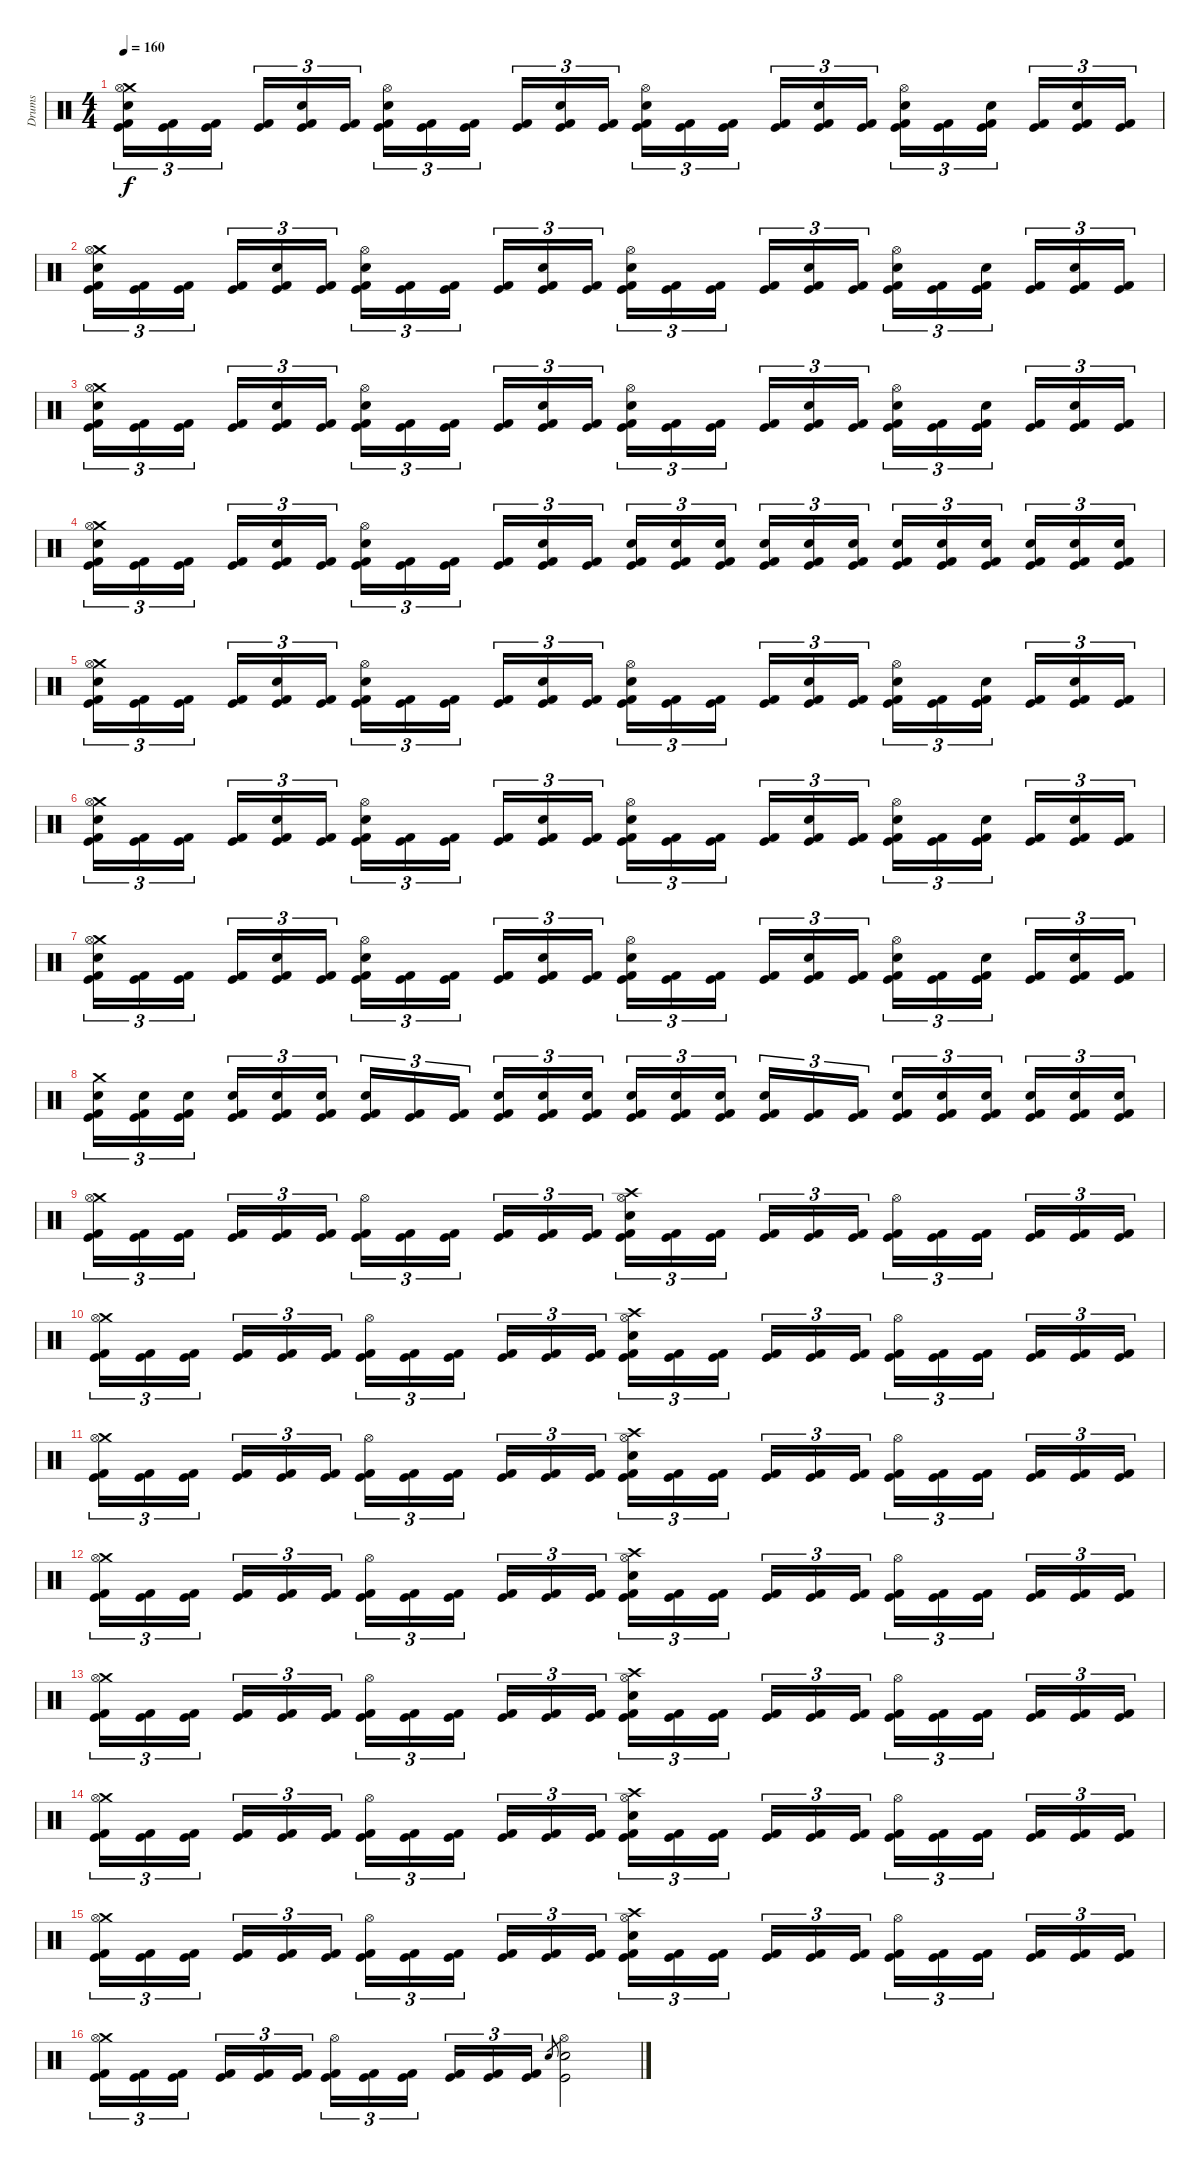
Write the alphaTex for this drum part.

\track ("Drums" "Drums") {instrument percussion}
\staff {score}
\articulation defaults
\ts (4 4)
\tempo 160
\clef neutral
\ks c
("Crash medium (hit)" "Hi-Hat (open)" "Electric Snare (hit)" "Kick (hit)" "Kick (hit) 2").16{tu (3 2) dy f} ("Kick (hit)" "Kick (hit) 2").16{tu (3 2)} ("Kick (hit)" "Kick (hit) 2").16{tu (3 2)} ("Kick (hit)" "Kick (hit) 2").16{tu (3 2)} ("Electric Snare (hit)" "Kick (hit)" "Kick (hit) 2").16{tu (3 2)} ("Kick (hit)" "Kick (hit) 2").16{tu (3 2)} ("Hi-Hat (open)" "Electric Snare (hit)" "Kick (hit)" "Kick (hit) 2").16{tu (3 2)} ("Kick (hit)" "Kick (hit) 2").16{tu (3 2)} ("Kick (hit)" "Kick (hit) 2").16{tu (3 2)} ("Kick (hit)" "Kick (hit) 2").16{tu (3 2)} ("Electric Snare (hit)" "Kick (hit)" "Kick (hit) 2").16{tu (3 2)} ("Kick (hit)" "Kick (hit) 2").16{tu (3 2)} ("Hi-Hat (open)" "Electric Snare (hit)" "Kick (hit)" "Kick (hit) 2").16{tu (3 2)} ("Kick (hit)" "Kick (hit) 2").16{tu (3 2)} ("Kick (hit)" "Kick (hit) 2").16{tu (3 2)} ("Kick (hit)" "Kick (hit) 2").16{tu (3 2)} ("Electric Snare (hit)" "Kick (hit)" "Kick (hit) 2").16{tu (3 2)} ("Kick (hit)" "Kick (hit) 2").16{tu (3 2)} ("Hi-Hat (open)" "Electric Snare (hit)" "Kick (hit)" "Kick (hit) 2").16{tu (3 2)} ("Kick (hit)" "Kick (hit) 2").16{tu (3 2)} ("Electric Snare (hit)" "Kick (hit)" "Kick (hit) 2").16{tu (3 2)} ("Kick (hit)" "Kick (hit) 2").16{tu (3 2)} ("Electric Snare (hit)" "Kick (hit)" "Kick (hit) 2").16{tu (3 2)} ("Kick (hit)" "Kick (hit) 2").16{tu (3 2)} |
("Crash medium (hit)" "Hi-Hat (open)" "Electric Snare (hit)" "Kick (hit)" "Kick (hit) 2").16{tu (3 2)} ("Kick (hit)" "Kick (hit) 2").16{tu (3 2)} ("Kick (hit)" "Kick (hit) 2").16{tu (3 2)} ("Kick (hit)" "Kick (hit) 2").16{tu (3 2)} ("Electric Snare (hit)" "Kick (hit)" "Kick (hit) 2").16{tu (3 2)} ("Kick (hit)" "Kick (hit) 2").16{tu (3 2)} ("Hi-Hat (open)" "Electric Snare (hit)" "Kick (hit)" "Kick (hit) 2").16{tu (3 2)} ("Kick (hit)" "Kick (hit) 2").16{tu (3 2)} ("Kick (hit)" "Kick (hit) 2").16{tu (3 2)} ("Kick (hit)" "Kick (hit) 2").16{tu (3 2)} ("Electric Snare (hit)" "Kick (hit)" "Kick (hit) 2").16{tu (3 2)} ("Kick (hit)" "Kick (hit) 2").16{tu (3 2)} ("Hi-Hat (open)" "Electric Snare (hit)" "Kick (hit)" "Kick (hit) 2").16{tu (3 2)} ("Kick (hit)" "Kick (hit) 2").16{tu (3 2)} ("Kick (hit)" "Kick (hit) 2").16{tu (3 2)} ("Kick (hit)" "Kick (hit) 2").16{tu (3 2)} ("Electric Snare (hit)" "Kick (hit)" "Kick (hit) 2").16{tu (3 2)} ("Kick (hit)" "Kick (hit) 2").16{tu (3 2)} ("Hi-Hat (open)" "Electric Snare (hit)" "Kick (hit)" "Kick (hit) 2").16{tu (3 2)} ("Kick (hit)" "Kick (hit) 2").16{tu (3 2)} ("Electric Snare (hit)" "Kick (hit)" "Kick (hit) 2").16{tu (3 2)} ("Kick (hit)" "Kick (hit) 2").16{tu (3 2)} ("Electric Snare (hit)" "Kick (hit)" "Kick (hit) 2").16{tu (3 2)} ("Kick (hit)" "Kick (hit) 2").16{tu (3 2)} |
("Crash medium (hit)" "Hi-Hat (open)" "Electric Snare (hit)" "Kick (hit)" "Kick (hit) 2").16{tu (3 2)} ("Kick (hit)" "Kick (hit) 2").16{tu (3 2)} ("Kick (hit)" "Kick (hit) 2").16{tu (3 2)} ("Kick (hit)" "Kick (hit) 2").16{tu (3 2)} ("Electric Snare (hit)" "Kick (hit)" "Kick (hit) 2").16{tu (3 2)} ("Kick (hit)" "Kick (hit) 2").16{tu (3 2)} ("Hi-Hat (open)" "Electric Snare (hit)" "Kick (hit)" "Kick (hit) 2").16{tu (3 2)} ("Kick (hit)" "Kick (hit) 2").16{tu (3 2)} ("Kick (hit)" "Kick (hit) 2").16{tu (3 2)} ("Kick (hit)" "Kick (hit) 2").16{tu (3 2)} ("Electric Snare (hit)" "Kick (hit)" "Kick (hit) 2").16{tu (3 2)} ("Kick (hit)" "Kick (hit) 2").16{tu (3 2)} ("Hi-Hat (open)" "Electric Snare (hit)" "Kick (hit)" "Kick (hit) 2").16{tu (3 2)} ("Kick (hit)" "Kick (hit) 2").16{tu (3 2)} ("Kick (hit)" "Kick (hit) 2").16{tu (3 2)} ("Kick (hit)" "Kick (hit) 2").16{tu (3 2)} ("Electric Snare (hit)" "Kick (hit)" "Kick (hit) 2").16{tu (3 2)} ("Kick (hit)" "Kick (hit) 2").16{tu (3 2)} ("Hi-Hat (open)" "Electric Snare (hit)" "Kick (hit)" "Kick (hit) 2").16{tu (3 2)} ("Kick (hit)" "Kick (hit) 2").16{tu (3 2)} ("Electric Snare (hit)" "Kick (hit)" "Kick (hit) 2").16{tu (3 2)} ("Kick (hit)" "Kick (hit) 2").16{tu (3 2)} ("Electric Snare (hit)" "Kick (hit)" "Kick (hit) 2").16{tu (3 2)} ("Kick (hit)" "Kick (hit) 2").16{tu (3 2)} |
("Crash medium (hit)" "Hi-Hat (open)" "Electric Snare (hit)" "Kick (hit)" "Kick (hit) 2").16{tu (3 2)} ("Kick (hit)" "Kick (hit) 2").16{tu (3 2)} ("Kick (hit)" "Kick (hit) 2").16{tu (3 2)} ("Kick (hit)" "Kick (hit) 2").16{tu (3 2)} ("Electric Snare (hit)" "Kick (hit)" "Kick (hit) 2").16{tu (3 2)} ("Kick (hit)" "Kick (hit) 2").16{tu (3 2)} ("Hi-Hat (open)" "Electric Snare (hit)" "Kick (hit)" "Kick (hit) 2").16{tu (3 2)} ("Kick (hit)" "Kick (hit) 2").16{tu (3 2)} ("Kick (hit)" "Kick (hit) 2").16{tu (3 2)} ("Kick (hit)" "Kick (hit) 2").16{tu (3 2)} ("Electric Snare (hit)" "Kick (hit)" "Kick (hit) 2").16{tu (3 2)} ("Kick (hit)" "Kick (hit) 2").16{tu (3 2)} ("Electric Snare (hit)" "Kick (hit)" "Kick (hit) 2").16{tu (3 2)} ("Electric Snare (hit)" "Kick (hit)" "Kick (hit) 2").16{tu (3 2)} ("Electric Snare (hit)" "Kick (hit)" "Kick (hit) 2").16{tu (3 2)} ("Electric Snare (hit)" "Kick (hit)" "Kick (hit) 2").16{tu (3 2)} ("Electric Snare (hit)" "Kick (hit)" "Kick (hit) 2").16{tu (3 2)} ("Electric Snare (hit)" "Kick (hit)" "Kick (hit) 2").16{tu (3 2)} ("Electric Snare (hit)" "Kick (hit)" "Kick (hit) 2").16{tu (3 2)} ("Electric Snare (hit)" "Kick (hit)" "Kick (hit) 2").16{tu (3 2)} ("Electric Snare (hit)" "Kick (hit)" "Kick (hit) 2").16{tu (3 2)} ("Electric Snare (hit)" "Kick (hit)" "Kick (hit) 2").16{tu (3 2)} ("Electric Snare (hit)" "Kick (hit)" "Kick (hit) 2").16{tu (3 2)} ("Electric Snare (hit)" "Kick (hit)" "Kick (hit) 2").16{tu (3 2)} |
("Crash medium (hit)" "Hi-Hat (open)" "Electric Snare (hit)" "Kick (hit)" "Kick (hit) 2").16{tu (3 2)} ("Kick (hit)" "Kick (hit) 2").16{tu (3 2)} ("Kick (hit)" "Kick (hit) 2").16{tu (3 2)} ("Kick (hit)" "Kick (hit) 2").16{tu (3 2)} ("Electric Snare (hit)" "Kick (hit)" "Kick (hit) 2").16{tu (3 2)} ("Kick (hit)" "Kick (hit) 2").16{tu (3 2)} ("Hi-Hat (open)" "Electric Snare (hit)" "Kick (hit)" "Kick (hit) 2").16{tu (3 2)} ("Kick (hit)" "Kick (hit) 2").16{tu (3 2)} ("Kick (hit)" "Kick (hit) 2").16{tu (3 2)} ("Kick (hit)" "Kick (hit) 2").16{tu (3 2)} ("Electric Snare (hit)" "Kick (hit)" "Kick (hit) 2").16{tu (3 2)} ("Kick (hit)" "Kick (hit) 2").16{tu (3 2)} ("Hi-Hat (open)" "Electric Snare (hit)" "Kick (hit)" "Kick (hit) 2").16{tu (3 2)} ("Kick (hit)" "Kick (hit) 2").16{tu (3 2)} ("Kick (hit)" "Kick (hit) 2").16{tu (3 2)} ("Kick (hit)" "Kick (hit) 2").16{tu (3 2)} ("Electric Snare (hit)" "Kick (hit)" "Kick (hit) 2").16{tu (3 2)} ("Kick (hit)" "Kick (hit) 2").16{tu (3 2)} ("Hi-Hat (open)" "Electric Snare (hit)" "Kick (hit)" "Kick (hit) 2").16{tu (3 2)} ("Kick (hit)" "Kick (hit) 2").16{tu (3 2)} ("Electric Snare (hit)" "Kick (hit)" "Kick (hit) 2").16{tu (3 2)} ("Kick (hit)" "Kick (hit) 2").16{tu (3 2)} ("Electric Snare (hit)" "Kick (hit)" "Kick (hit) 2").16{tu (3 2)} ("Kick (hit)" "Kick (hit) 2").16{tu (3 2)} |
("Crash medium (hit)" "Hi-Hat (open)" "Electric Snare (hit)" "Kick (hit)" "Kick (hit) 2").16{tu (3 2)} ("Kick (hit)" "Kick (hit) 2").16{tu (3 2)} ("Kick (hit)" "Kick (hit) 2").16{tu (3 2)} ("Kick (hit)" "Kick (hit) 2").16{tu (3 2)} ("Electric Snare (hit)" "Kick (hit)" "Kick (hit) 2").16{tu (3 2)} ("Kick (hit)" "Kick (hit) 2").16{tu (3 2)} ("Hi-Hat (open)" "Electric Snare (hit)" "Kick (hit)" "Kick (hit) 2").16{tu (3 2)} ("Kick (hit)" "Kick (hit) 2").16{tu (3 2)} ("Kick (hit)" "Kick (hit) 2").16{tu (3 2)} ("Kick (hit)" "Kick (hit) 2").16{tu (3 2)} ("Electric Snare (hit)" "Kick (hit)" "Kick (hit) 2").16{tu (3 2)} ("Kick (hit)" "Kick (hit) 2").16{tu (3 2)} ("Hi-Hat (open)" "Electric Snare (hit)" "Kick (hit)" "Kick (hit) 2").16{tu (3 2)} ("Kick (hit)" "Kick (hit) 2").16{tu (3 2)} ("Kick (hit)" "Kick (hit) 2").16{tu (3 2)} ("Kick (hit)" "Kick (hit) 2").16{tu (3 2)} ("Electric Snare (hit)" "Kick (hit)" "Kick (hit) 2").16{tu (3 2)} ("Kick (hit)" "Kick (hit) 2").16{tu (3 2)} ("Hi-Hat (open)" "Electric Snare (hit)" "Kick (hit)" "Kick (hit) 2").16{tu (3 2)} ("Kick (hit)" "Kick (hit) 2").16{tu (3 2)} ("Electric Snare (hit)" "Kick (hit)" "Kick (hit) 2").16{tu (3 2)} ("Kick (hit)" "Kick (hit) 2").16{tu (3 2)} ("Electric Snare (hit)" "Kick (hit)" "Kick (hit) 2").16{tu (3 2)} ("Kick (hit)" "Kick (hit) 2").16{tu (3 2)} |
("Crash medium (hit)" "Hi-Hat (open)" "Electric Snare (hit)" "Kick (hit)" "Kick (hit) 2").16{tu (3 2)} ("Kick (hit)" "Kick (hit) 2").16{tu (3 2)} ("Kick (hit)" "Kick (hit) 2").16{tu (3 2)} ("Kick (hit)" "Kick (hit) 2").16{tu (3 2)} ("Electric Snare (hit)" "Kick (hit)" "Kick (hit) 2").16{tu (3 2)} ("Kick (hit)" "Kick (hit) 2").16{tu (3 2)} ("Hi-Hat (open)" "Electric Snare (hit)" "Kick (hit)" "Kick (hit) 2").16{tu (3 2)} ("Kick (hit)" "Kick (hit) 2").16{tu (3 2)} ("Kick (hit)" "Kick (hit) 2").16{tu (3 2)} ("Kick (hit)" "Kick (hit) 2").16{tu (3 2)} ("Electric Snare (hit)" "Kick (hit)" "Kick (hit) 2").16{tu (3 2)} ("Kick (hit)" "Kick (hit) 2").16{tu (3 2)} ("Hi-Hat (open)" "Electric Snare (hit)" "Kick (hit)" "Kick (hit) 2").16{tu (3 2)} ("Kick (hit)" "Kick (hit) 2").16{tu (3 2)} ("Kick (hit)" "Kick (hit) 2").16{tu (3 2)} ("Kick (hit)" "Kick (hit) 2").16{tu (3 2)} ("Electric Snare (hit)" "Kick (hit)" "Kick (hit) 2").16{tu (3 2)} ("Kick (hit)" "Kick (hit) 2").16{tu (3 2)} ("Hi-Hat (open)" "Electric Snare (hit)" "Kick (hit)" "Kick (hit) 2").16{tu (3 2)} ("Kick (hit)" "Kick (hit) 2").16{tu (3 2)} ("Electric Snare (hit)" "Kick (hit)" "Kick (hit) 2").16{tu (3 2)} ("Kick (hit)" "Kick (hit) 2").16{tu (3 2)} ("Electric Snare (hit)" "Kick (hit)" "Kick (hit) 2").16{tu (3 2)} ("Kick (hit)" "Kick (hit) 2").16{tu (3 2)} |
("Crash medium (hit)" "Electric Snare (hit)" "Kick (hit)" "Kick (hit) 2").16{tu (3 2)} ("Electric Snare (hit)" "Kick (hit)" "Kick (hit) 2").16{tu (3 2)} ("Electric Snare (hit)" "Kick (hit)" "Kick (hit) 2").16{tu (3 2)} ("Electric Snare (hit)" "Kick (hit)" "Kick (hit) 2").16{tu (3 2)} ("Electric Snare (hit)" "Kick (hit)" "Kick (hit) 2").16{tu (3 2)} ("Electric Snare (hit)" "Kick (hit)" "Kick (hit) 2").16{tu (3 2)} ("Electric Snare (hit)" "Kick (hit)" "Kick (hit) 2").16{tu (3 2)} ("Kick (hit)" "Kick (hit) 2").16{tu (3 2)} ("Kick (hit)" "Kick (hit) 2").16{tu (3 2)} ("Electric Snare (hit)" "Kick (hit)" "Kick (hit) 2").16{tu (3 2)} ("Electric Snare (hit)" "Kick (hit)" "Kick (hit) 2").16{tu (3 2)} ("Electric Snare (hit)" "Kick (hit)" "Kick (hit) 2").16{tu (3 2)} ("Electric Snare (hit)" "Kick (hit)" "Kick (hit) 2").16{tu (3 2)} ("Electric Snare (hit)" "Kick (hit)" "Kick (hit) 2").16{tu (3 2)} ("Electric Snare (hit)" "Kick (hit)" "Kick (hit) 2").16{tu (3 2)} ("Electric Snare (hit)" "Kick (hit)" "Kick (hit) 2").16{tu (3 2)} ("Kick (hit)" "Kick (hit) 2").16{tu (3 2)} ("Kick (hit)" "Kick (hit) 2").16{tu (3 2)} ("Electric Snare (hit)" "Kick (hit)" "Kick (hit) 2").16{tu (3 2)} ("Electric Snare (hit)" "Kick (hit)" "Kick (hit) 2").16{tu (3 2)} ("Electric Snare (hit)" "Kick (hit)" "Kick (hit) 2").16{tu (3 2)} ("Electric Snare (hit)" "Kick (hit)" "Kick (hit) 2").16{tu (3 2)} ("Electric Snare (hit)" "Kick (hit)" "Kick (hit) 2").16{tu (3 2)} ("Electric Snare (hit)" "Kick (hit)" "Kick (hit) 2").16{tu (3 2)} |
("Crash medium (hit)" "Hi-Hat (open)" "Kick (hit)" "Kick (hit) 2").16{tu (3 2)} ("Kick (hit)" "Kick (hit) 2").16{tu (3 2)} ("Kick (hit)" "Kick (hit) 2").16{tu (3 2)} ("Kick (hit)" "Kick (hit) 2").16{tu (3 2)} ("Kick (hit)" "Kick (hit) 2").16{tu (3 2)} ("Kick (hit)" "Kick (hit) 2").16{tu (3 2)} ("Hi-Hat (open)" "Kick (hit)" "Kick (hit) 2").16{tu (3 2)} ("Kick (hit)" "Kick (hit) 2").16{tu (3 2)} ("Kick (hit)" "Kick (hit) 2").16{tu (3 2)} ("Kick (hit)" "Kick (hit) 2").16{tu (3 2)} ("Kick (hit)" "Kick (hit) 2").16{tu (3 2)} ("Kick (hit)" "Kick (hit) 2").16{tu (3 2)} ("Crash high (hit)" "Hi-Hat (open)" "Electric Snare (hit)" "Kick (hit)" "Kick (hit) 2").16{tu (3 2)} ("Kick (hit)" "Kick (hit) 2").16{tu (3 2)} ("Kick (hit)" "Kick (hit) 2").16{tu (3 2)} ("Kick (hit)" "Kick (hit) 2").16{tu (3 2)} ("Kick (hit)" "Kick (hit) 2").16{tu (3 2)} ("Kick (hit)" "Kick (hit) 2").16{tu (3 2)} ("Hi-Hat (open)" "Kick (hit)" "Kick (hit) 2").16{tu (3 2)} ("Kick (hit)" "Kick (hit) 2").16{tu (3 2)} ("Kick (hit)" "Kick (hit) 2").16{tu (3 2)} ("Kick (hit)" "Kick (hit) 2").16{tu (3 2)} ("Kick (hit)" "Kick (hit) 2").16{tu (3 2)} ("Kick (hit)" "Kick (hit) 2").16{tu (3 2)} |
("Crash medium (hit)" "Hi-Hat (open)" "Kick (hit)" "Kick (hit) 2").16{tu (3 2)} ("Kick (hit)" "Kick (hit) 2").16{tu (3 2)} ("Kick (hit)" "Kick (hit) 2").16{tu (3 2)} ("Kick (hit)" "Kick (hit) 2").16{tu (3 2)} ("Kick (hit)" "Kick (hit) 2").16{tu (3 2)} ("Kick (hit)" "Kick (hit) 2").16{tu (3 2)} ("Hi-Hat (open)" "Kick (hit)" "Kick (hit) 2").16{tu (3 2)} ("Kick (hit)" "Kick (hit) 2").16{tu (3 2)} ("Kick (hit)" "Kick (hit) 2").16{tu (3 2)} ("Kick (hit)" "Kick (hit) 2").16{tu (3 2)} ("Kick (hit)" "Kick (hit) 2").16{tu (3 2)} ("Kick (hit)" "Kick (hit) 2").16{tu (3 2)} ("Crash high (hit)" "Hi-Hat (open)" "Electric Snare (hit)" "Kick (hit)" "Kick (hit) 2").16{tu (3 2)} ("Kick (hit)" "Kick (hit) 2").16{tu (3 2)} ("Kick (hit)" "Kick (hit) 2").16{tu (3 2)} ("Kick (hit)" "Kick (hit) 2").16{tu (3 2)} ("Kick (hit)" "Kick (hit) 2").16{tu (3 2)} ("Kick (hit)" "Kick (hit) 2").16{tu (3 2)} ("Hi-Hat (open)" "Kick (hit)" "Kick (hit) 2").16{tu (3 2)} ("Kick (hit)" "Kick (hit) 2").16{tu (3 2)} ("Kick (hit)" "Kick (hit) 2").16{tu (3 2)} ("Kick (hit)" "Kick (hit) 2").16{tu (3 2)} ("Kick (hit)" "Kick (hit) 2").16{tu (3 2)} ("Kick (hit)" "Kick (hit) 2").16{tu (3 2)} |
("Crash medium (hit)" "Hi-Hat (open)" "Kick (hit)" "Kick (hit) 2").16{tu (3 2)} ("Kick (hit)" "Kick (hit) 2").16{tu (3 2)} ("Kick (hit)" "Kick (hit) 2").16{tu (3 2)} ("Kick (hit)" "Kick (hit) 2").16{tu (3 2)} ("Kick (hit)" "Kick (hit) 2").16{tu (3 2)} ("Kick (hit)" "Kick (hit) 2").16{tu (3 2)} ("Hi-Hat (open)" "Kick (hit)" "Kick (hit) 2").16{tu (3 2)} ("Kick (hit)" "Kick (hit) 2").16{tu (3 2)} ("Kick (hit)" "Kick (hit) 2").16{tu (3 2)} ("Kick (hit)" "Kick (hit) 2").16{tu (3 2)} ("Kick (hit)" "Kick (hit) 2").16{tu (3 2)} ("Kick (hit)" "Kick (hit) 2").16{tu (3 2)} ("Crash high (hit)" "Hi-Hat (open)" "Electric Snare (hit)" "Kick (hit)" "Kick (hit) 2").16{tu (3 2)} ("Kick (hit)" "Kick (hit) 2").16{tu (3 2)} ("Kick (hit)" "Kick (hit) 2").16{tu (3 2)} ("Kick (hit)" "Kick (hit) 2").16{tu (3 2)} ("Kick (hit)" "Kick (hit) 2").16{tu (3 2)} ("Kick (hit)" "Kick (hit) 2").16{tu (3 2)} ("Hi-Hat (open)" "Kick (hit)" "Kick (hit) 2").16{tu (3 2)} ("Kick (hit)" "Kick (hit) 2").16{tu (3 2)} ("Kick (hit)" "Kick (hit) 2").16{tu (3 2)} ("Kick (hit)" "Kick (hit) 2").16{tu (3 2)} ("Kick (hit)" "Kick (hit) 2").16{tu (3 2)} ("Kick (hit)" "Kick (hit) 2").16{tu (3 2)} |
("Crash medium (hit)" "Hi-Hat (open)" "Kick (hit)" "Kick (hit) 2").16{tu (3 2)} ("Kick (hit)" "Kick (hit) 2").16{tu (3 2)} ("Kick (hit)" "Kick (hit) 2").16{tu (3 2)} ("Kick (hit)" "Kick (hit) 2").16{tu (3 2)} ("Kick (hit)" "Kick (hit) 2").16{tu (3 2)} ("Kick (hit)" "Kick (hit) 2").16{tu (3 2)} ("Hi-Hat (open)" "Kick (hit)" "Kick (hit) 2").16{tu (3 2)} ("Kick (hit)" "Kick (hit) 2").16{tu (3 2)} ("Kick (hit)" "Kick (hit) 2").16{tu (3 2)} ("Kick (hit)" "Kick (hit) 2").16{tu (3 2)} ("Kick (hit)" "Kick (hit) 2").16{tu (3 2)} ("Kick (hit)" "Kick (hit) 2").16{tu (3 2)} ("Crash high (hit)" "Hi-Hat (open)" "Electric Snare (hit)" "Kick (hit)" "Kick (hit) 2").16{tu (3 2)} ("Kick (hit)" "Kick (hit) 2").16{tu (3 2)} ("Kick (hit)" "Kick (hit) 2").16{tu (3 2)} ("Kick (hit)" "Kick (hit) 2").16{tu (3 2)} ("Kick (hit)" "Kick (hit) 2").16{tu (3 2)} ("Kick (hit)" "Kick (hit) 2").16{tu (3 2)} ("Hi-Hat (open)" "Kick (hit)" "Kick (hit) 2").16{tu (3 2)} ("Kick (hit)" "Kick (hit) 2").16{tu (3 2)} ("Kick (hit)" "Kick (hit) 2").16{tu (3 2)} ("Kick (hit)" "Kick (hit) 2").16{tu (3 2)} ("Kick (hit)" "Kick (hit) 2").16{tu (3 2)} ("Kick (hit)" "Kick (hit) 2").16{tu (3 2)} |
("Crash medium (hit)" "Hi-Hat (open)" "Kick (hit)" "Kick (hit) 2").16{tu (3 2)} ("Kick (hit)" "Kick (hit) 2").16{tu (3 2)} ("Kick (hit)" "Kick (hit) 2").16{tu (3 2)} ("Kick (hit)" "Kick (hit) 2").16{tu (3 2)} ("Kick (hit)" "Kick (hit) 2").16{tu (3 2)} ("Kick (hit)" "Kick (hit) 2").16{tu (3 2)} ("Hi-Hat (open)" "Kick (hit)" "Kick (hit) 2").16{tu (3 2)} ("Kick (hit)" "Kick (hit) 2").16{tu (3 2)} ("Kick (hit)" "Kick (hit) 2").16{tu (3 2)} ("Kick (hit)" "Kick (hit) 2").16{tu (3 2)} ("Kick (hit)" "Kick (hit) 2").16{tu (3 2)} ("Kick (hit)" "Kick (hit) 2").16{tu (3 2)} ("Crash high (hit)" "Hi-Hat (open)" "Electric Snare (hit)" "Kick (hit)" "Kick (hit) 2").16{tu (3 2)} ("Kick (hit)" "Kick (hit) 2").16{tu (3 2)} ("Kick (hit)" "Kick (hit) 2").16{tu (3 2)} ("Kick (hit)" "Kick (hit) 2").16{tu (3 2)} ("Kick (hit)" "Kick (hit) 2").16{tu (3 2)} ("Kick (hit)" "Kick (hit) 2").16{tu (3 2)} ("Hi-Hat (open)" "Kick (hit)" "Kick (hit) 2").16{tu (3 2)} ("Kick (hit)" "Kick (hit) 2").16{tu (3 2)} ("Kick (hit)" "Kick (hit) 2").16{tu (3 2)} ("Kick (hit)" "Kick (hit) 2").16{tu (3 2)} ("Kick (hit)" "Kick (hit) 2").16{tu (3 2)} ("Kick (hit)" "Kick (hit) 2").16{tu (3 2)} |
("Crash medium (hit)" "Hi-Hat (open)" "Kick (hit)" "Kick (hit) 2").16{tu (3 2)} ("Kick (hit)" "Kick (hit) 2").16{tu (3 2)} ("Kick (hit)" "Kick (hit) 2").16{tu (3 2)} ("Kick (hit)" "Kick (hit) 2").16{tu (3 2)} ("Kick (hit)" "Kick (hit) 2").16{tu (3 2)} ("Kick (hit)" "Kick (hit) 2").16{tu (3 2)} ("Hi-Hat (open)" "Kick (hit)" "Kick (hit) 2").16{tu (3 2)} ("Kick (hit)" "Kick (hit) 2").16{tu (3 2)} ("Kick (hit)" "Kick (hit) 2").16{tu (3 2)} ("Kick (hit)" "Kick (hit) 2").16{tu (3 2)} ("Kick (hit)" "Kick (hit) 2").16{tu (3 2)} ("Kick (hit)" "Kick (hit) 2").16{tu (3 2)} ("Crash high (hit)" "Hi-Hat (open)" "Electric Snare (hit)" "Kick (hit)" "Kick (hit) 2").16{tu (3 2)} ("Kick (hit)" "Kick (hit) 2").16{tu (3 2)} ("Kick (hit)" "Kick (hit) 2").16{tu (3 2)} ("Kick (hit)" "Kick (hit) 2").16{tu (3 2)} ("Kick (hit)" "Kick (hit) 2").16{tu (3 2)} ("Kick (hit)" "Kick (hit) 2").16{tu (3 2)} ("Hi-Hat (open)" "Kick (hit)" "Kick (hit) 2").16{tu (3 2)} ("Kick (hit)" "Kick (hit) 2").16{tu (3 2)} ("Kick (hit)" "Kick (hit) 2").16{tu (3 2)} ("Kick (hit)" "Kick (hit) 2").16{tu (3 2)} ("Kick (hit)" "Kick (hit) 2").16{tu (3 2)} ("Kick (hit)" "Kick (hit) 2").16{tu (3 2)} |
("Crash medium (hit)" "Hi-Hat (open)" "Kick (hit)" "Kick (hit) 2").16{tu (3 2)} ("Kick (hit)" "Kick (hit) 2").16{tu (3 2)} ("Kick (hit)" "Kick (hit) 2").16{tu (3 2)} ("Kick (hit)" "Kick (hit) 2").16{tu (3 2)} ("Kick (hit)" "Kick (hit) 2").16{tu (3 2)} ("Kick (hit)" "Kick (hit) 2").16{tu (3 2)} ("Hi-Hat (open)" "Kick (hit)" "Kick (hit) 2").16{tu (3 2)} ("Kick (hit)" "Kick (hit) 2").16{tu (3 2)} ("Kick (hit)" "Kick (hit) 2").16{tu (3 2)} ("Kick (hit)" "Kick (hit) 2").16{tu (3 2)} ("Kick (hit)" "Kick (hit) 2").16{tu (3 2)} ("Kick (hit)" "Kick (hit) 2").16{tu (3 2)} ("Crash high (hit)" "Hi-Hat (open)" "Electric Snare (hit)" "Kick (hit)" "Kick (hit) 2").16{tu (3 2)} ("Kick (hit)" "Kick (hit) 2").16{tu (3 2)} ("Kick (hit)" "Kick (hit) 2").16{tu (3 2)} ("Kick (hit)" "Kick (hit) 2").16{tu (3 2)} ("Kick (hit)" "Kick (hit) 2").16{tu (3 2)} ("Kick (hit)" "Kick (hit) 2").16{tu (3 2)} ("Hi-Hat (open)" "Kick (hit)" "Kick (hit) 2").16{tu (3 2)} ("Kick (hit)" "Kick (hit) 2").16{tu (3 2)} ("Kick (hit)" "Kick (hit) 2").16{tu (3 2)} ("Kick (hit)" "Kick (hit) 2").16{tu (3 2)} ("Kick (hit)" "Kick (hit) 2").16{tu (3 2)} ("Kick (hit)" "Kick (hit) 2").16{tu (3 2)} |
("Crash medium (hit)" "Hi-Hat (open)" "Kick (hit)" "Kick (hit) 2").16{tu (3 2)} ("Kick (hit)" "Kick (hit) 2").16{tu (3 2)} ("Kick (hit)" "Kick (hit) 2").16{tu (3 2)} ("Kick (hit)" "Kick (hit) 2").16{tu (3 2)} ("Kick (hit)" "Kick (hit) 2").16{tu (3 2)} ("Kick (hit)" "Kick (hit) 2").16{tu (3 2)} ("Hi-Hat (open)" "Kick (hit)" "Kick (hit) 2").16{tu (3 2)} ("Kick (hit)" "Kick (hit) 2").16{tu (3 2)} ("Kick (hit)" "Kick (hit) 2").16{tu (3 2)} ("Kick (hit)" "Kick (hit) 2").16{tu (3 2)} ("Kick (hit)" "Kick (hit) 2").16{tu (3 2)} ("Kick (hit)" "Kick (hit) 2").16{tu (3 2)} "Electric Snare (hit)".8{gr} ("Hi-Hat (open)" "Electric Snare (hit)" "Kick (hit)").2
